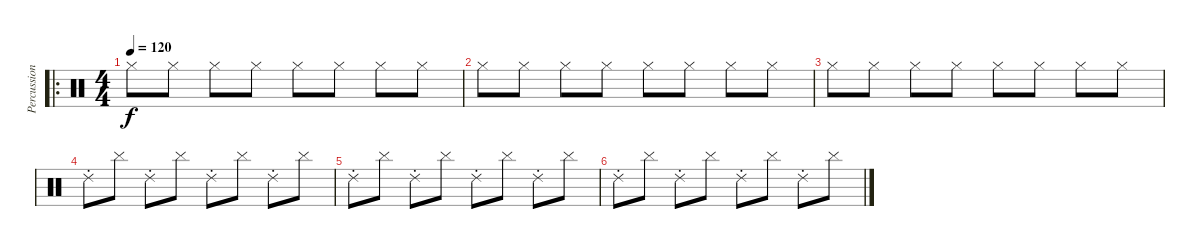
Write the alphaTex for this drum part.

\track ("Percussion" "Percussion") {instrument percussion}
\staff {score}
\articulation defaults
\ro
\ts (4 4)
\tempo 120
\clef neutral
\ks c "Hi-Hat (closed)".8{dy f} "Hi-Hat (closed)".8 "Hi-Hat (closed)".8 "Hi-Hat (closed)".8 "Hi-Hat (closed)".8 "Hi-Hat (closed)".8 "Hi-Hat (closed)".8 "Hi-Hat (closed)".8
|
"Hi-Hat (closed)".8 "Hi-Hat (closed)".8 "Hi-Hat (closed)".8 "Hi-Hat (closed)".8 "Hi-Hat (closed)".8 "Hi-Hat (closed)".8 "Hi-Hat (closed)".8 "Hi-Hat (closed)".8 |
"Hi-Hat (closed)".8 "Hi-Hat (closed)".8 "Hi-Hat (closed)".8 "Hi-Hat (closed)".8 "Hi-Hat (closed)".8 "Hi-Hat (closed)".8 "Hi-Hat (closed)".8 "Hi-Hat (closed)".8 |
"Ride (choke) 2".8 "Cymbal (hit)".8 "Ride (choke) 2".8 "Cymbal (hit)".8 "Ride (choke) 2".8 "Cymbal (hit)".8 "Ride (choke) 2".8 "Cymbal (hit)".8 |
"Ride (choke) 2".8 "Cymbal (hit)".8 "Ride (choke) 2".8 "Cymbal (hit)".8 "Ride (choke) 2".8 "Cymbal (hit)".8 "Ride (choke) 2".8 "Cymbal (hit)".8 |
"Ride (choke) 2".8 "Cymbal (hit)".8 "Ride (choke) 2".8 "Cymbal (hit)".8 "Ride (choke) 2".8 "Cymbal (hit)".8 "Ride (choke) 2".8 "Cymbal (hit)".8
